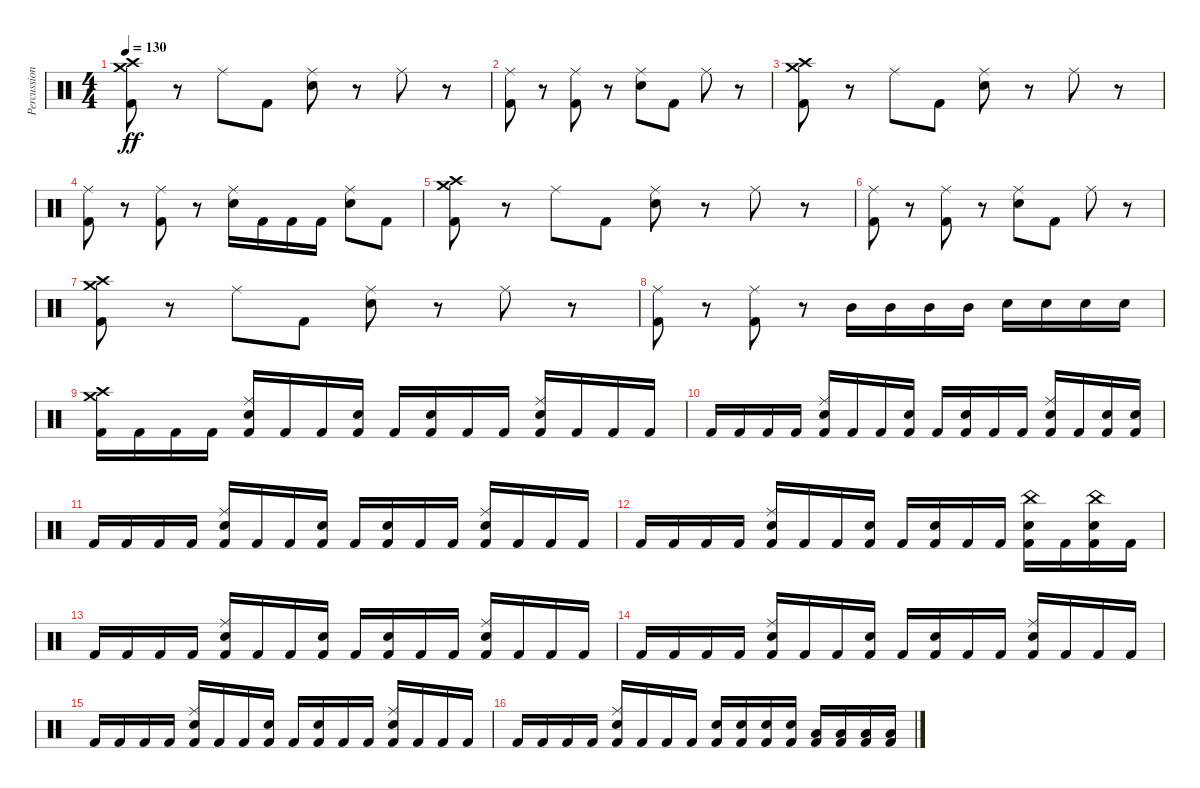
\track ("Percussion" "Percussion") {instrument percussion}
\staff {score}
\articulation defaults
\ts (4 4)
\tempo 130
\clef neutral
\ks c
("Kick (hit) 2" "Crash high (hit)" "Crash medium (hit)").8{dy ff} r.8 "Ride (middle)".8 "Kick (hit) 2".8 ("Electric Snare (hit)" "Ride (middle)").8 r.8 "Ride (middle)".8 r.8 |
("Kick (hit) 2" "Ride (middle)").8 r.8 ("Kick (hit) 2" "Ride (middle)").8 r.8 ("Electric Snare (hit)" "Ride (middle)").8 "Kick (hit) 2".8 "Ride (middle)".8 r.8 |
("Kick (hit) 2" "Crash high (hit)" "Crash medium (hit)").8 r.8 "Ride (middle)".8 "Kick (hit) 2".8 ("Electric Snare (hit)" "Ride (middle)").8 r.8 "Ride (middle)".8 r.8 |
("Kick (hit) 2" "Ride (middle)").8 r.8 ("Kick (hit) 2" "Ride (middle)").8 r.8 ("Electric Snare (hit)" "Ride (middle)").16 "Kick (hit) 2".16 "Kick (hit) 2".16 "Kick (hit) 2".16 ("Electric Snare (hit)" "Ride (middle)").8 "Kick (hit) 2".8 |
("Kick (hit) 2" "Crash high (hit)" "Crash medium (hit)").8 r.8 "Ride (middle)".8 "Kick (hit) 2".8 ("Electric Snare (hit)" "Ride (middle)").8 r.8 "Ride (middle)".8 r.8 |
("Kick (hit) 2" "Ride (middle)").8 r.8 ("Kick (hit) 2" "Ride (middle)").8 r.8 ("Electric Snare (hit)" "Ride (middle)").8 "Kick (hit) 2".8 "Ride (middle)".8 r.8 |
("Kick (hit) 2" "Crash high (hit)" "Crash medium (hit)").8 r.8 "Ride (middle)".8 "Kick (hit) 2".8 ("Electric Snare (hit)" "Ride (middle)").8 r.8 "Ride (middle)".8 r.8 |
("Kick (hit) 2" "Ride (middle)").8 r.8 ("Kick (hit) 2" "Ride (middle)").8 r.8 "Mid Tom (hit)".16 "Mid Tom (hit)".16 "Mid Tom (hit)".16 "Mid Tom (hit)".16 "Electric Snare (hit)".16 "Electric Snare (hit)".16 "Electric Snare (hit)".16 "Electric Snare (hit)".16 |
("Kick (hit) 2" "Crash medium (hit)" "Crash high (hit)").16 "Kick (hit) 2".16 "Kick (hit) 2".16 "Kick (hit) 2".16 ("Kick (hit) 2" "Electric Snare (hit)" "Ride (middle)").16 "Kick (hit) 2".16 "Kick (hit) 2".16 ("Kick (hit) 2" "Electric Snare (hit)").16 "Kick (hit) 2".16 ("Kick (hit) 2" "Electric Snare (hit)").16 "Kick (hit) 2".16 "Kick (hit) 2".16 ("Kick (hit) 2" "Electric Snare (hit)" "Ride (middle)").16 "Kick (hit) 2".16 "Kick (hit) 2".16 "Kick (hit) 2".16 |
"Kick (hit) 2".16 "Kick (hit) 2".16 "Kick (hit) 2".16 "Kick (hit) 2".16 ("Kick (hit) 2" "Electric Snare (hit)" "Ride (middle)").16 "Kick (hit) 2".16 "Kick (hit) 2".16 ("Kick (hit) 2" "Electric Snare (hit)").16 "Kick (hit) 2".16 ("Kick (hit) 2" "Electric Snare (hit)").16 "Kick (hit) 2".16 "Kick (hit) 2".16 ("Kick (hit) 2" "Electric Snare (hit)" "Ride (middle)").16 "Kick (hit) 2".16 ("Kick (hit) 2" "Electric Snare (hit)").16 ("Kick (hit) 2" "Electric Snare (hit)").16 |
"Kick (hit) 2".16 "Kick (hit) 2".16 "Kick (hit) 2".16 "Kick (hit) 2".16 ("Kick (hit) 2" "Electric Snare (hit)" "Ride (middle)").16 "Kick (hit) 2".16 "Kick (hit) 2".16 ("Kick (hit) 2" "Electric Snare (hit)").16 "Kick (hit) 2".16 ("Kick (hit) 2" "Electric Snare (hit)").16 "Kick (hit) 2".16 "Kick (hit) 2".16 ("Kick (hit) 2" "Electric Snare (hit)" "Ride (middle)").16 "Kick (hit) 2".16 "Kick (hit) 2".16 "Kick (hit) 2".16 |
"Kick (hit) 2".16 "Kick (hit) 2".16 "Kick (hit) 2".16 "Kick (hit) 2".16 ("Kick (hit) 2" "Electric Snare (hit)" "Ride (middle)").16 "Kick (hit) 2".16 "Kick (hit) 2".16 ("Kick (hit) 2" "Electric Snare (hit)").16 "Kick (hit) 2".16 ("Kick (hit) 2" "Electric Snare (hit)").16 "Kick (hit) 2".16 "Kick (hit) 2".16 ("Kick (hit) 2" "Electric Snare (hit)" "China (hit)").16 "Kick (hit) 2".16 ("Kick (hit) 2" "Electric Snare (hit)" "China (hit)").16 "Kick (hit) 2".16 |
"Kick (hit) 2".16 "Kick (hit) 2".16 "Kick (hit) 2".16 "Kick (hit) 2".16 ("Kick (hit) 2" "Electric Snare (hit)" "Ride (middle)").16 "Kick (hit) 2".16 "Kick (hit) 2".16 ("Kick (hit) 2" "Electric Snare (hit)").16 "Kick (hit) 2".16 ("Kick (hit) 2" "Electric Snare (hit)").16 "Kick (hit) 2".16 "Kick (hit) 2".16 ("Kick (hit) 2" "Electric Snare (hit)" "Ride (middle)").16 "Kick (hit) 2".16 "Kick (hit) 2".16 "Kick (hit) 2".16 |
"Kick (hit) 2".16 "Kick (hit) 2".16 "Kick (hit) 2".16 "Kick (hit) 2".16 ("Kick (hit) 2" "Electric Snare (hit)" "Ride (middle)").16 "Kick (hit) 2".16 "Kick (hit) 2".16 ("Kick (hit) 2" "Electric Snare (hit)").16 "Kick (hit) 2".16 ("Kick (hit) 2" "Electric Snare (hit)").16 "Kick (hit) 2".16 "Kick (hit) 2".16 ("Kick (hit) 2" "Electric Snare (hit)" "Ride (middle)").16 "Kick (hit) 2".16 "Kick (hit) 2".16 "Kick (hit) 2".16 |
"Kick (hit) 2".16 "Kick (hit) 2".16 "Kick (hit) 2".16 "Kick (hit) 2".16 ("Kick (hit) 2" "Electric Snare (hit)" "Ride (middle)").16 "Kick (hit) 2".16 "Kick (hit) 2".16 ("Kick (hit) 2" "Electric Snare (hit)").16 "Kick (hit) 2".16 ("Kick (hit) 2" "Electric Snare (hit)").16 "Kick (hit) 2".16 "Kick (hit) 2".16 ("Kick (hit) 2" "Electric Snare (hit)" "Ride (middle)").16 "Kick (hit) 2".16 "Kick (hit) 2".16 "Kick (hit) 2".16 |
"Kick (hit) 2".16 "Kick (hit) 2".16 "Kick (hit) 2".16 "Kick (hit) 2".16 ("Kick (hit) 2" "Electric Snare (hit)" "Ride (middle)").16 "Kick (hit) 2".16 "Kick (hit) 2".16 "Kick (hit) 2".16 ("Kick (hit) 2" "Electric Snare (hit)").16 ("Kick (hit) 2" "Electric Snare (hit)").16 ("Kick (hit) 2" "Electric Snare (hit)").16 ("Kick (hit) 2" "Electric Snare (hit)").16 ("Kick (hit) 2" "Low Tom (hit)").16 ("Kick (hit) 2" "Low Tom (hit)").16 ("Kick (hit) 2" "Low Tom (hit)").16 ("Kick (hit) 2" "Low Tom (hit)").16
